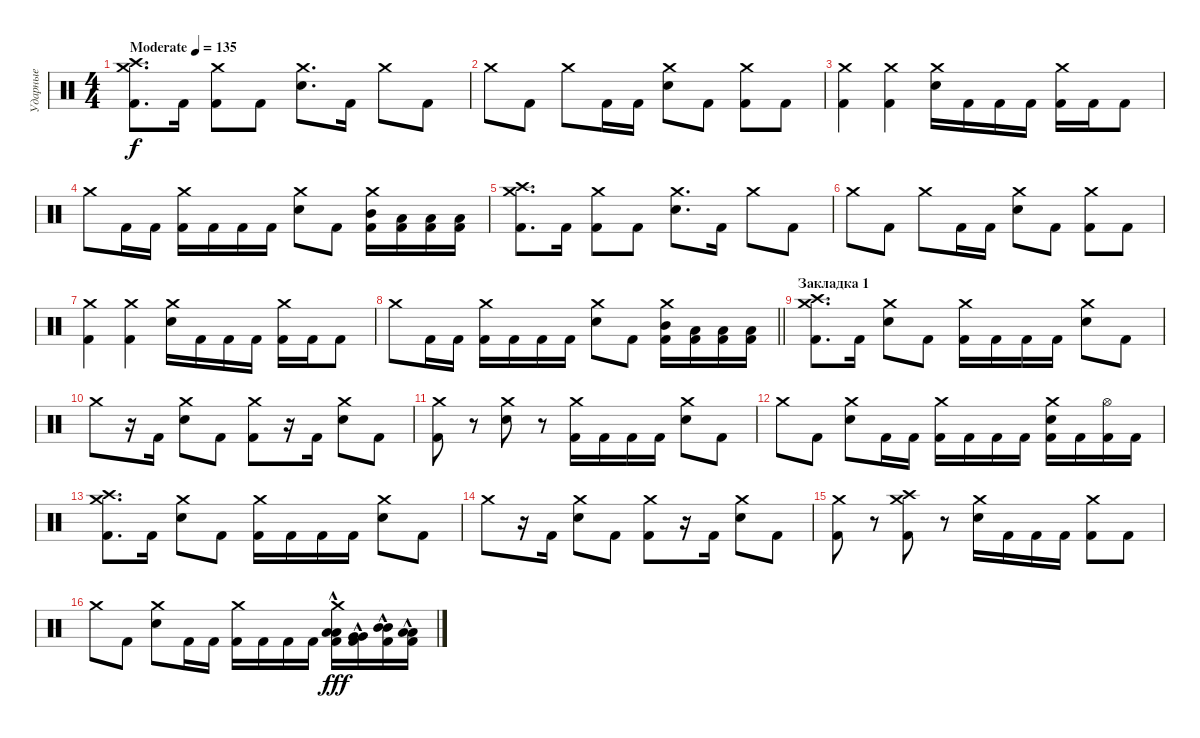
\track ("Ударные" "Ударные") {instrument percussion}
\staff {score}
\articulation defaults
\ts (4 4)
\tempo (135 "Moderate")
\clef neutral
\ks c
("Crash medium (hit)" "Crash high (hit)" "Kick (hit) 2").8{d dy f} "Kick (hit) 2".16 ("Crash medium (hit)" "Kick (hit) 2").8 "Kick (hit) 2".8 ("Crash medium (hit)" "Electric Snare (hit)").8{d} "Kick (hit) 2".16 "Crash medium (hit)".8 "Kick (hit) 2".8 |
"Crash medium (hit)".8 "Kick (hit) 2".8 "Crash medium (hit)".8 "Kick (hit) 2".16 "Kick (hit) 2".16 ("Crash medium (hit)" "Electric Snare (hit)").8 "Kick (hit) 2".8 ("Crash medium (hit)" "Kick (hit) 2").8 "Kick (hit) 2".8 |
("Crash medium (hit)" "Kick (hit) 2").4 ("Crash medium (hit)" "Kick (hit) 2").4 ("Crash medium (hit)" "Electric Snare (hit)").16 "Kick (hit) 2".16 "Kick (hit) 2".16 "Kick (hit) 2".16 ("Crash medium (hit)" "Kick (hit) 2").16 "Kick (hit) 2".16 "Kick (hit) 2".8 |
"Crash medium (hit)".8 "Kick (hit) 2".16 "Kick (hit) 2".16 ("Crash medium (hit)" "Kick (hit) 2").16 "Kick (hit) 2".16 "Kick (hit) 2".16 "Kick (hit) 2".16 ("Crash medium (hit)" "Electric Snare (hit)").8 "Kick (hit) 2".8 ("Crash medium (hit)" "Mid Tom (hit)" "Kick (hit) 2").16 ("Low Floor Tom (hit)" "Kick (hit) 2").16 ("Low Tom (hit)" "Kick (hit) 2").16 ("Low Floor Tom (hit)" "Kick (hit) 2").16 |
("Crash medium (hit)" "Crash high (hit)" "Kick (hit) 2").8{d} "Kick (hit) 2".16 ("Crash medium (hit)" "Kick (hit) 2").8 "Kick (hit) 2".8 ("Crash medium (hit)" "Electric Snare (hit)").8{d} "Kick (hit) 2".16 "Crash medium (hit)".8 "Kick (hit) 2".8 |
"Crash medium (hit)".8 "Kick (hit) 2".8 "Crash medium (hit)".8 "Kick (hit) 2".16 "Kick (hit) 2".16 ("Crash medium (hit)" "Electric Snare (hit)").8 "Kick (hit) 2".8 ("Crash medium (hit)" "Kick (hit) 2").8 "Kick (hit) 2".8 |
("Crash medium (hit)" "Kick (hit) 2").4 ("Crash medium (hit)" "Kick (hit) 2").4 ("Crash medium (hit)" "Electric Snare (hit)").16 "Kick (hit) 2".16 "Kick (hit) 2".16 "Kick (hit) 2".16 ("Crash medium (hit)" "Kick (hit) 2").16 "Kick (hit) 2".16 "Kick (hit) 2".8 |
\barLineRight lightlight "Crash medium (hit)".8 "Kick (hit) 2".16 "Kick (hit) 2".16
("Crash medium (hit)" "Kick (hit) 2").16 "Kick (hit) 2".16 "Kick (hit) 2".16 "Kick (hit) 2".16 ("Crash medium (hit)" "Electric Snare (hit)").8 "Kick (hit) 2".8 ("Crash medium (hit)" "Mid Tom (hit)" "Kick (hit) 2").16 ("Low Floor Tom (hit)" "Kick (hit) 2").16 ("Low Tom (hit)" "Kick (hit) 2").16 ("Low Floor Tom (hit)" "Kick (hit) 2").16 |
\section ("" "Закладка 1")
("Crash medium (hit)" "Crash high (hit)" "Kick (hit) 2").8{d} "Kick (hit) 2".16 ("Crash medium (hit)" "Electric Snare (hit)").8 "Kick (hit) 2".8 ("Crash medium (hit)" "Kick (hit) 2").16 "Kick (hit) 2".16 "Kick (hit) 2".16 "Kick (hit) 2".16 ("Crash medium (hit)" "Electric Snare (hit)").8 "Kick (hit) 2".8 |
"Crash medium (hit)".8 r.16 "Kick (hit) 2".16 ("Crash medium (hit)" "Electric Snare (hit)").8 "Kick (hit) 2".8 ("Crash medium (hit)" "Kick (hit) 2").8 r.16 "Kick (hit) 2".16 ("Crash medium (hit)" "Electric Snare (hit)").8 "Kick (hit) 2".8 |
("Crash medium (hit)" "Kick (hit) 2").8 r.8 ("Crash medium (hit)" "Electric Snare (hit)").8 r.8 ("Crash medium (hit)" "Kick (hit) 2").16 "Kick (hit) 2".16 "Kick (hit) 2".16 "Kick (hit) 2".16 ("Crash medium (hit)" "Electric Snare (hit)").8 "Kick (hit) 2".8 |
"Crash medium (hit)".8 "Kick (hit) 2".8 ("Crash medium (hit)" "Electric Snare (hit)").8 "Kick (hit) 2".16 "Kick (hit) 2".16 ("Crash medium (hit)" "Kick (hit) 2").16 "Kick (hit) 2".16 "Kick (hit) 2".16 "Kick (hit) 2".16 ("Crash medium (hit)" "Electric Snare (hit)" "Kick (hit) 2").16 "Kick (hit) 2".16 ("Hi-Hat (open)" "Kick (hit) 2").16 "Kick (hit) 2".16 |
("Crash medium (hit)" "Crash high (hit)" "Kick (hit) 2").8{d} "Kick (hit) 2".16 ("Crash medium (hit)" "Electric Snare (hit)").8 "Kick (hit) 2".8 ("Crash medium (hit)" "Kick (hit) 2").16 "Kick (hit) 2".16 "Kick (hit) 2".16 "Kick (hit) 2".16 ("Crash medium (hit)" "Electric Snare (hit)").8 "Kick (hit) 2".8 |
"Crash medium (hit)".8 r.16 "Kick (hit) 2".16 ("Crash medium (hit)" "Electric Snare (hit)").8 "Kick (hit) 2".8 ("Crash medium (hit)" "Kick (hit) 2").8 r.16 "Kick (hit) 2".16 ("Crash medium (hit)" "Electric Snare (hit)").8 "Kick (hit) 2".8 |
("Crash medium (hit)" "Kick (hit) 2").8 r.8 ("Crash medium (hit)" "Crash high (hit)" "Kick (hit) 2").8 r.8 ("Crash medium (hit)" "Electric Snare (hit)").16 "Kick (hit) 2".16 "Kick (hit) 2".16 "Kick (hit) 2".16 ("Crash medium (hit)" "Kick (hit) 2").8 "Kick (hit) 2".8 |
"Crash medium (hit)".8 "Kick (hit) 2".8 ("Crash medium (hit)" "Electric Snare (hit)").8 "Kick (hit) 2".16 "Kick (hit) 2".16 ("Crash medium (hit)" "Kick (hit) 2").16 "Kick (hit) 2".16 "Kick (hit) 2".16 "Kick (hit) 2".16 ("Crash medium (hit)" "Low Tom (hit)" "Low Tom (hit)"{hac} "Kick (hit) 2"{hac}).16{dy fff} ("Very Low Tom (hit)" "Very Low Tom (hit)"{hac} "Kick (hit) 2"{hac}).16 ("Mid Tom (hit)"{hac} "Mid Tom (hit)"{hac} "Kick (hit) 2"{hac}).16 ("Low Floor Tom (hit)"{hac} "Low Floor Tom (hit)"{hac} "Kick (hit) 2"{hac}).16
